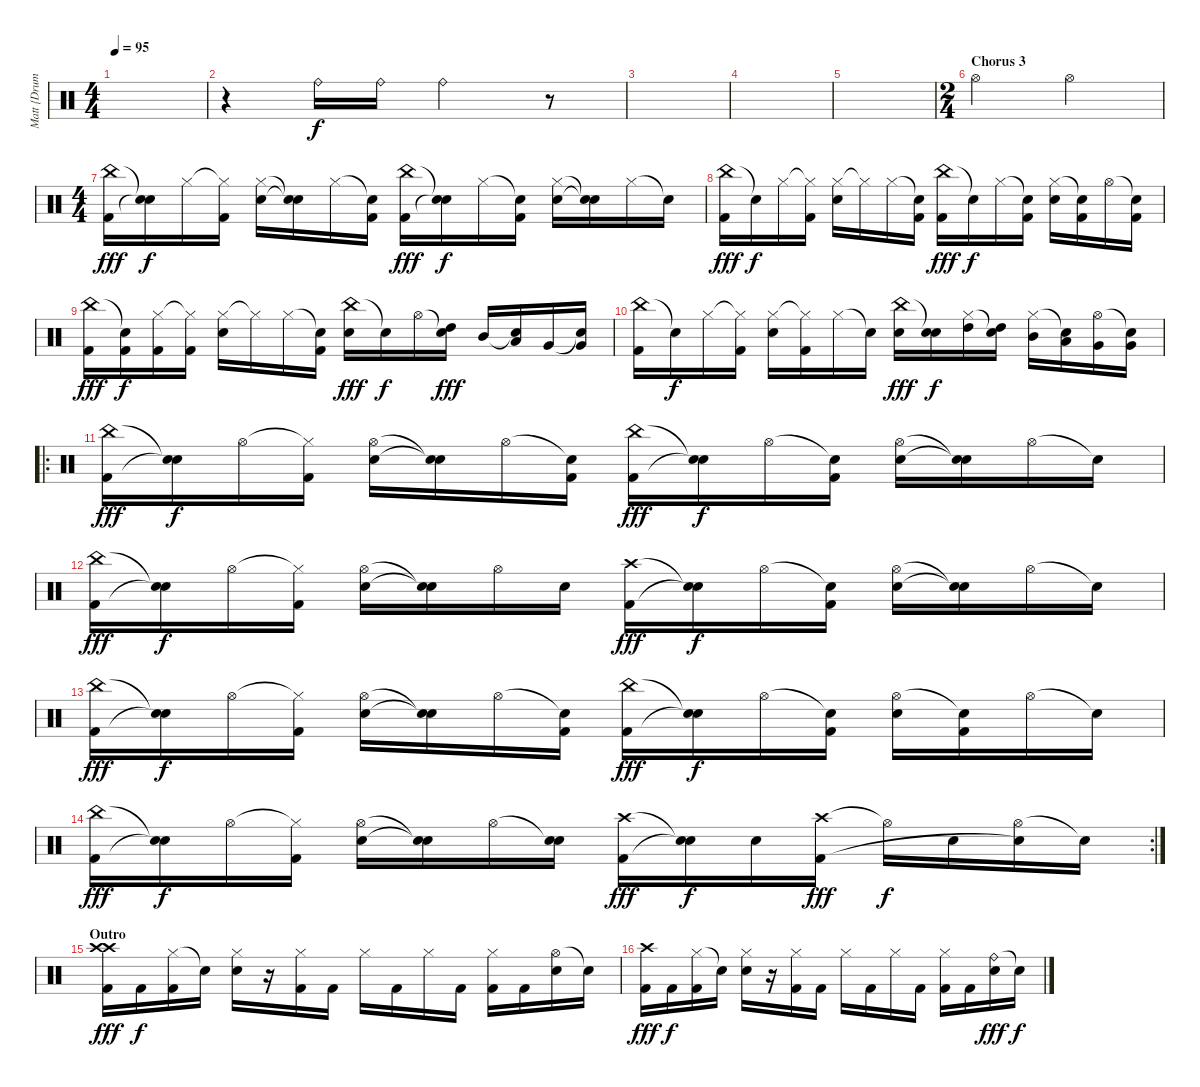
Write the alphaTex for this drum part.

\track ("Matt {Drums}" "Matt {Drum") {instrument percussion}
\staff {score}
\articulation defaults
\ts (4 4)
\tempo 95
\clef neutral
\ks c
|
r.4 "Ride (bell)".16 "Ride (bell)".16 "Ride (bell)".2 r.8 |
|
|
|
\ts (2 4)
\section ("" "Chorus 3")
"Hi-Hat (open)".4 "Hi-Hat (open)".4 |
\ts (4 4)
("China (hit)" "Kick (hit) 2").16{dy fff} ("Snare (hit)"{t} "Snare (hit)"{t}).16{dy f} "Hi-Hat (closed)".16 ("Hi-Hat (closed)"{t} "Kick (hit) 2").16 ("Hi-Hat (closed)" "Electric Snare (hit)").16 ("Snare (hit)"{t} "Snare (hit)"{t}).16 "Hi-Hat (closed)".16 ("Snare (hit)"{t} "Kick (hit) 2").16 ("China (hit)" "Kick (hit) 2").16{dy fff} ("Snare (hit)"{t} "Snare (hit)"{t}).16{dy f} "Hi-Hat (closed)".16 ("Snare (hit)"{t} "Kick (hit) 2").16 ("Hi-Hat (closed)" "Electric Snare (hit)").16 ("Snare (hit)"{t} "Snare (hit)"{t}).16 "Hi-Hat (closed)".16 "Snare (hit)"{t}.16 |
("China (hit)" "Kick (hit) 2").16{dy fff} "Snare (hit)"{t}.16{dy f} "Hi-Hat (closed)".16 ("Hi-Hat (closed)"{t} "Kick (hit) 2").16 ("Hi-Hat (closed)" "Electric Snare (hit)").16 "Hi-Hat (closed)"{t}.16 "Hi-Hat (closed)".16 ("Snare (hit)"{t} "Kick (hit) 2").16 ("China (hit)" "Kick (hit) 2").16{dy fff} "Snare (hit)"{t}.16{dy f} "Hi-Hat (closed)".16 ("Snare (hit)"{t} "Kick (hit) 2").16 ("Hi-Hat (closed)" "Electric Snare (hit)").16 ("Snare (hit)"{t} "Kick (hit) 2").16 "Hi-Hat (open)".16 ("Snare (hit)"{t} "Kick (hit) 2").16 |
("China (hit)" "Kick (hit) 2").16{dy fff} ("Snare (hit)"{t} "Kick (hit) 2").16{dy f} ("Hi-Hat (closed)" "Kick (hit) 2").16 ("Hi-Hat (closed)"{t} "Kick (hit) 2").16 ("Hi-Hat (closed)" "Electric Snare (hit)").16 "Hi-Hat (closed)"{t}.16 "Hi-Hat (closed)".16 ("Snare (hit)"{t} "Kick (hit) 2").16 ("China (hit)" "Electric Snare (hit)").16{dy fff} "Snare (hit)"{t}.16{dy f} "Hi-Hat (open)".16 ("Snare (hit)"{t} "High Tom (hit)").16{dy fff} "Mid Tom (hit)".16 ("Snare (hit)"{t} "Low Tom (hit)").16 "Very Low Tom (hit)".16 ("Snare (hit)"{t} "Very Low Tom (hit)").16 |
("China (hit)" "Kick (hit) 2").16 "Snare (hit)"{t}.16{dy f} "Hi-Hat (closed)".16 ("Hi-Hat (closed)"{t} "Kick (hit) 2").16 ("Hi-Hat (closed)" "Electric Snare (hit)").16 ("Hi-Hat (closed)"{t} "Kick (hit) 2").16 "Hi-Hat (closed)".16 "Snare (hit)"{t}.16 ("China (hit)" "Electric Snare (hit)").16{dy fff} ("Snare (hit)"{t} "Electric Snare (hit)").16{dy f} ("Hi-Hat (closed)" "High Tom (hit)").16 ("Snare (hit)"{t} "High Tom (hit)").16 ("Hi-Hat (closed)" "Mid Tom (hit)").16 ("Snare (hit)"{t} "Low Tom (hit)").16 ("Hi-Hat (open)" "Very Low Tom (hit)").16 ("Snare (hit)"{t} "Very Low Tom (hit)").16 |
\ro
("China (hit)" "Kick (hit) 2").16{dy fff} ("Snare (hit)"{t} "Snare (hit)"{t}).16{dy f} "Hi-Hat (open)".16 ("Hi-Hat (closed)"{t} "Kick (hit) 2").16 ("Hi-Hat (open)" "Electric Snare (hit)").16 ("Snare (hit)"{t} "Snare (hit)"{t}).16 "Hi-Hat (open)".16 ("Snare (hit)"{t} "Kick (hit) 2").16 ("China (hit)" "Kick (hit) 2").16{dy fff} ("Snare (hit)"{t} "Snare (hit)"{t}).16{dy f} "Hi-Hat (open)".16 ("Snare (hit)"{t} "Kick (hit) 2").16 ("Hi-Hat (open)" "Electric Snare (hit)").16 ("Snare (hit)"{t} "Snare (hit)"{t}).16 "Hi-Hat (open)".16 "Snare (hit)"{t}.16 |
("China (hit)" "Kick (hit) 2").16{dy fff} ("Snare (hit)"{t} "Snare (hit)"{t}).16{dy f} "Hi-Hat (open)".16 ("Hi-Hat (closed)"{t} "Kick (hit) 2").16 ("Hi-Hat (open)" "Electric Snare (hit)").16 ("Snare (hit)"{t} "Snare (hit)"{t}).16 "Hi-Hat (open)".16 "Electric Snare (hit)".16 ("Crash high (hit)" "Kick (hit) 2").16{dy fff} ("Snare (hit)"{t} "Snare (hit)"{t}).16{dy f} "Hi-Hat (open)".16 ("Snare (hit)"{t} "Kick (hit) 2").16 ("Hi-Hat (open)" "Electric Snare (hit)").16 ("Snare (hit)"{t} "Snare (hit)"{t}).16 "Hi-Hat (open)".16 "Snare (hit)"{t}.16 |
("China (hit)" "Kick (hit) 2").16{dy fff} ("Snare (hit)"{t} "Snare (hit)"{t}).16{dy f} "Hi-Hat (open)".16 ("Hi-Hat (closed)"{t} "Kick (hit) 2").16 ("Hi-Hat (open)" "Electric Snare (hit)").16 ("Snare (hit)"{t} "Snare (hit)"{t}).16 "Hi-Hat (open)".16 ("Snare (hit)"{t} "Kick (hit) 2").16 ("China (hit)" "Kick (hit) 2").16{dy fff} ("Snare (hit)"{t} "Snare (hit)"{t}).16{dy f} "Hi-Hat (open)".16 ("Snare (hit)"{t} "Kick (hit) 2").16 ("Hi-Hat (open)" "Electric Snare (hit)").16 ("Snare (hit)"{t} "Kick (hit) 2").16 "Hi-Hat (open)".16 "Snare (hit)"{t}.16 |
\rc 2
("China (hit)" "Kick (hit) 2").16{dy fff} ("Snare (hit)"{t} "Snare (hit)"{t}).16{dy f} "Hi-Hat (open)".16 ("Hi-Hat (closed)"{t} "Kick (hit) 2").16 ("Hi-Hat (open)" "Electric Snare (hit)").16 ("Snare (hit)"{t} "Snare (hit)"{t}).16 "Hi-Hat (open)".16 ("Snare (hit)"{t} "Electric Snare (hit)").16 ("Crash high (hit)" "Kick (hit) 2").16{dy fff} ("Snare (hit)"{t} "Snare (hit)"{t}).16{dy f} "Electric Snare (hit)".16 ("Crash high (hit)" "Kick (hit) 2").16{dy fff} "Hi-Hat (open)"{t}.16{dy f} "Electric Snare (hit)".16 ("Hi-Hat (open)" "Snare (hit)"{t}).16 "Snare (hit)"{t}.16 |
\section ("" "Outro")
("Crash high (hit)" "Crash high (hit)" "Kick (hit) 2").16{dy fff} "Kick (hit) 2".16{dy f} ("Hi-Hat (closed)" "Kick (hit) 2").16 "Electric Snare (hit)"{t}.16 ("Hi-Hat (closed)" "Electric Snare (hit)").16 r.16 ("Hi-Hat (closed)" "Kick (hit) 2").16 "Kick (hit) 2".16 "Hi-Hat (closed)".16 "Kick (hit) 2".16 "Hi-Hat (closed)".16 "Kick (hit) 2".16 ("Hi-Hat (closed)" "Kick (hit) 2").16 "Kick (hit) 2".16 ("Hi-Hat (open)" "Electric Snare (hit)").16 "Snare (hit)"{t}.16 |
("Crash high (hit)" "Kick (hit) 2").16{dy fff} "Kick (hit) 2".16{dy f} ("Hi-Hat (closed)" "Kick (hit) 2").16 "Electric Snare (hit)"{t}.16 ("Hi-Hat (closed)" "Electric Snare (hit)").16 r.16 ("Hi-Hat (closed)" "Kick (hit) 2").16 "Kick (hit) 2".16 "Hi-Hat (closed)".16 "Kick (hit) 2".16 "Hi-Hat (closed)".16 "Kick (hit) 2".16 ("Hi-Hat (closed)" "Kick (hit) 2").16 "Kick (hit) 2".16 ("Ride (bell)" "Electric Snare (hit)").16{dy fff} "Snare (hit)"{t}.16{dy f}
